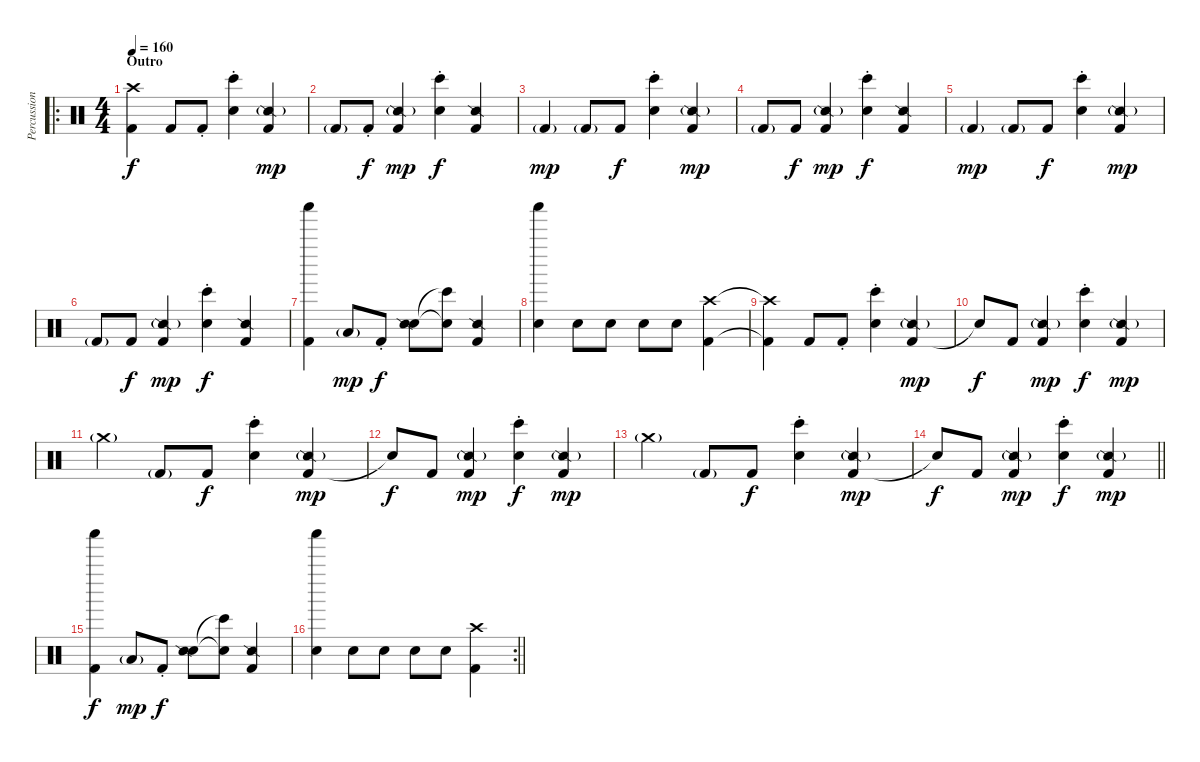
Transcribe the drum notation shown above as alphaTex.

\track ("Percussion" "Percussion") {instrument percussion}
\staff {score}
\articulation defaults
\ro
\ts (4 4)
\section ("" "Outro")
\tempo 160
\clef neutral
\ks c
("Kick (hit) 2"{t} "Crash high (hit)"{t}).4{dy f} "Kick (hit) 2".8 "Kick (hit) 2"{st}.8 ("Electric Snare (hit)" "Bongo High (hit)"{st}).4 ("Kick (hit) 2" "Snare (side stick) 2"{g}).4{dy mp} |
"Kick (hit) 2"{g}.8 "Kick (hit) 2"{st}.8{dy f} ("Kick (hit) 2" "Snare (side stick) 2"{g}).4{dy mp} ("Electric Snare (hit)" "Bongo High (hit)"{st}).4{dy f} ("Kick (hit) 2" "Snare (side stick) 2").4 |
"Kick (hit) 2"{g}.4{dy mp} "Kick (hit) 2"{g}.8 "Kick (hit) 2".8{dy f} ("Electric Snare (hit)" "Bongo High (hit)"{st}).4 ("Kick (hit) 2" "Snare (side stick) 2"{g}).4{dy mp} |
"Kick (hit) 2"{g}.8 "Kick (hit) 2".8{dy f} ("Kick (hit) 2" "Snare (side stick) 2"{g}).4{dy mp} ("Electric Snare (hit)" "Bongo High (hit)"{st}).4{dy f} ("Kick (hit) 2" "Snare (side stick) 2").4 |
"Kick (hit) 2"{g}.4{dy mp} "Kick (hit) 2"{g}.8 "Kick (hit) 2".8{dy f} ("Electric Snare (hit)" "Bongo High (hit)"{st}).4 ("Kick (hit) 2" "Snare (side stick) 2"{g}).4{dy mp} |
"Kick (hit) 2"{g}.8 "Kick (hit) 2".8{dy f} ("Kick (hit) 2" "Snare (side stick) 2"{g}).4{dy mp} ("Electric Snare (hit)" "Bongo High (hit)"{st}).4{dy f} ("Kick (hit) 2" "Snare (side stick) 2").4 |
("Kick (hit) 2" "Shaker (hit)").4 "Low Tom (hit)"{g}.8{dy mp} "Kick (hit) 2"{st}.8{dy f} ("Electric Snare (hit)" "Snare (side stick) 2").8 ("Electric Snare (hit)"{t} "Bongo High (hit)"{t}).8 ("Kick (hit) 2" "Snare (side stick) 2").4 |
("Electric Snare (hit)" "Shaker (hit)").4 "Electric Snare (hit)".8 "Electric Snare (hit)".8 "Electric Snare (hit)".8 "Electric Snare (hit)".8 ("Kick (hit) 2" "Crash high (hit)").4 |
("Kick (hit) 2"{t} "Crash high (hit)"{t}).4 "Kick (hit) 2".8 "Kick (hit) 2"{st}.8 ("Electric Snare (hit)" "Bongo High (hit)"{st}).4 ("Kick (hit) 2" "Snare (side stick) 2"{g}).4{dy mp} |
"Snare (hit)"{t}.8{dy f} "Kick (hit) 2".8 ("Kick (hit) 2" "Snare (side stick) 2"{g}).4{dy mp} ("Electric Snare (hit)" "Bongo High (hit)"{st}).4{dy f} ("Kick (hit) 2" "Snare (side stick) 2"{g}).4{dy mp} |
"Crash medium (hit)"{g}.4 "Kick (hit) 2"{g}.8 "Kick (hit) 2".8{dy f} ("Electric Snare (hit)" "Bongo High (hit)"{st}).4 ("Kick (hit) 2" "Snare (side stick) 2"{g}).4{dy mp} |
"Snare (hit)"{t}.8{dy f} "Kick (hit) 2".8 ("Kick (hit) 2" "Snare (side stick) 2"{g}).4{dy mp} ("Electric Snare (hit)" "Bongo High (hit)"{st}).4{dy f} ("Kick (hit) 2" "Snare (side stick) 2"{g}).4{dy mp} |
"Crash medium (hit)"{g}.4 "Kick (hit) 2"{g}.8 "Kick (hit) 2".8{dy f} ("Electric Snare (hit)" "Bongo High (hit)"{st}).4 ("Kick (hit) 2" "Snare (side stick) 2"{g}).4{dy mp} |
\barLineRight lightlight "Snare (hit)"{t}.8{dy f} "Kick (hit) 2".8
("Kick (hit) 2" "Snare (side stick) 2"{g}).4{dy mp} ("Electric Snare (hit)" "Bongo High (hit)"{st}).4{dy f} ("Kick (hit) 2" "Snare (side stick) 2"{g}).4{dy mp} |
("Kick (hit) 2" "Shaker (hit)").4{dy f} "Low Tom (hit)"{g}.8{dy mp} "Kick (hit) 2"{st}.8{dy f} ("Electric Snare (hit)" "Snare (side stick) 2").8 ("Electric Snare (hit)"{t} "Bongo High (hit)"{t}).8 ("Kick (hit) 2" "Snare (side stick) 2").4 |
\rc 2
\barLineRight lightlight
("Electric Snare (hit)" "Shaker (hit)").4 "Electric Snare (hit)".8 "Electric Snare (hit)".8 "Electric Snare (hit)".8 "Electric Snare (hit)".8 ("Kick (hit) 2" "Crash high (hit)").4
